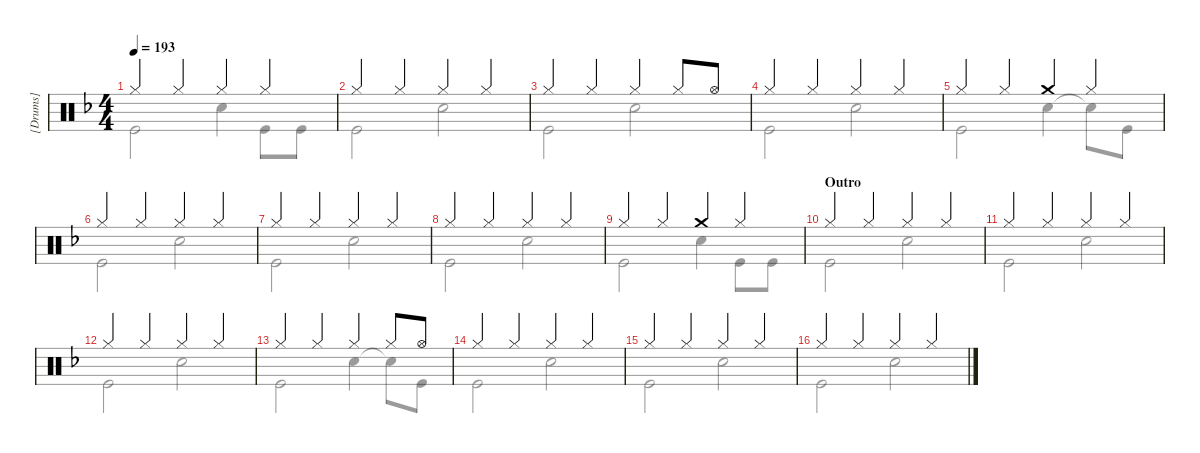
\hideDynamics
\bracketExtendMode groupsimilarinstruments
\firstSystemTrackNameMode fullname
\otherSystemsTrackNameMode fullname
\otherSystemsTrackNameOrientation horizontal
\track ("[Drums]" "Drums") {instrument percussion}
\staff {score}
\articulation defaults
\voice
\ts (4 4)
\tempo 193
\clef neutral
\ks f "Hi-Hat (closed)".4{dy ff} "Hi-Hat (closed)".4 "Hi-Hat (closed)".4 "Hi-Hat (closed)".4
|
"Hi-Hat (closed)".4 "Hi-Hat (closed)".4 "Hi-Hat (closed)".4 "Hi-Hat (closed)".4 |
"Hi-Hat (closed)".4 "Hi-Hat (closed)".4 "Hi-Hat (closed)".4 "Hi-Hat (closed)".8 "Hi-Hat (open)".8 |
"Hi-Hat (closed)".4 "Hi-Hat (closed)".4 "Hi-Hat (closed)".4 "Hi-Hat (closed)".4 |
"Hi-Hat (closed)".4 "Hi-Hat (closed)".4 "Crash medium (hit)".4 "Hi-Hat (closed)".4 |
"Hi-Hat (closed)".4 "Hi-Hat (closed)".4 "Hi-Hat (closed)".4 "Hi-Hat (closed)".4 |
"Hi-Hat (closed)".4 "Hi-Hat (closed)".4 "Hi-Hat (closed)".4 "Hi-Hat (closed)".4 |
"Hi-Hat (closed)".4 "Hi-Hat (closed)".4 "Hi-Hat (closed)".4 "Hi-Hat (closed)".4 |
"Hi-Hat (closed)".4 "Hi-Hat (closed)".4 "Crash medium (hit)".4 "Hi-Hat (closed)".4 |
\section ("" "Outro")
"Hi-Hat (closed)".4 "Hi-Hat (closed)".4 "Hi-Hat (closed)".4 "Hi-Hat (closed)".4 |
"Hi-Hat (closed)".4 "Hi-Hat (closed)".4 "Hi-Hat (closed)".4 "Hi-Hat (closed)".4 |
"Hi-Hat (closed)".4 "Hi-Hat (closed)".4 "Hi-Hat (closed)".4 "Hi-Hat (closed)".4 |
"Hi-Hat (closed)".4 "Hi-Hat (closed)".4 "Hi-Hat (closed)".4 "Hi-Hat (closed)".8 "Hi-Hat (open)".8 |
"Hi-Hat (closed)".4 "Hi-Hat (closed)".4 "Hi-Hat (closed)".4 "Hi-Hat (closed)".4 |
"Hi-Hat (closed)".4 "Hi-Hat (closed)".4 "Hi-Hat (closed)".4 "Hi-Hat (closed)".4 |
"Hi-Hat (closed)".4 "Hi-Hat (closed)".4 "Hi-Hat (closed)".4 "Hi-Hat (closed)".4
\voice
\clef neutral
\ottava regular
\simile none
\ks f "Kick (hit)".2{dy f} "Snare (hit) 2".4 "Kick (hit)".8 "Kick (hit)".8
|
"Kick (hit)".2 "Snare (hit) 2".2 |
"Kick (hit)".2 "Snare (hit) 2".2 |
"Kick (hit)".2 "Snare (hit) 2".2 |
"Kick (hit)".2 "Snare (hit) 2".4 "Snare (hit) 2"{t}.8 "Kick (hit)".8 |
"Kick (hit)".2 "Snare (hit) 2".2 |
"Kick (hit)".2 "Snare (hit) 2".2 |
"Kick (hit)".2 "Snare (hit) 2".2 |
"Kick (hit)".2 "Snare (hit) 2".4 "Kick (hit)".8 "Kick (hit)".8 |
"Kick (hit)".2 "Snare (hit) 2".2 |
"Kick (hit)".2 "Snare (hit) 2".2 |
"Kick (hit)".2 "Snare (hit) 2".2 |
"Kick (hit)".2 "Snare (hit) 2".4 "Snare (hit) 2"{t}.8 "Kick (hit)".8 |
"Kick (hit)".2 "Snare (hit) 2".2 |
"Kick (hit)".2 "Snare (hit) 2".2 |
"Kick (hit)".2 "Snare (hit) 2".2
